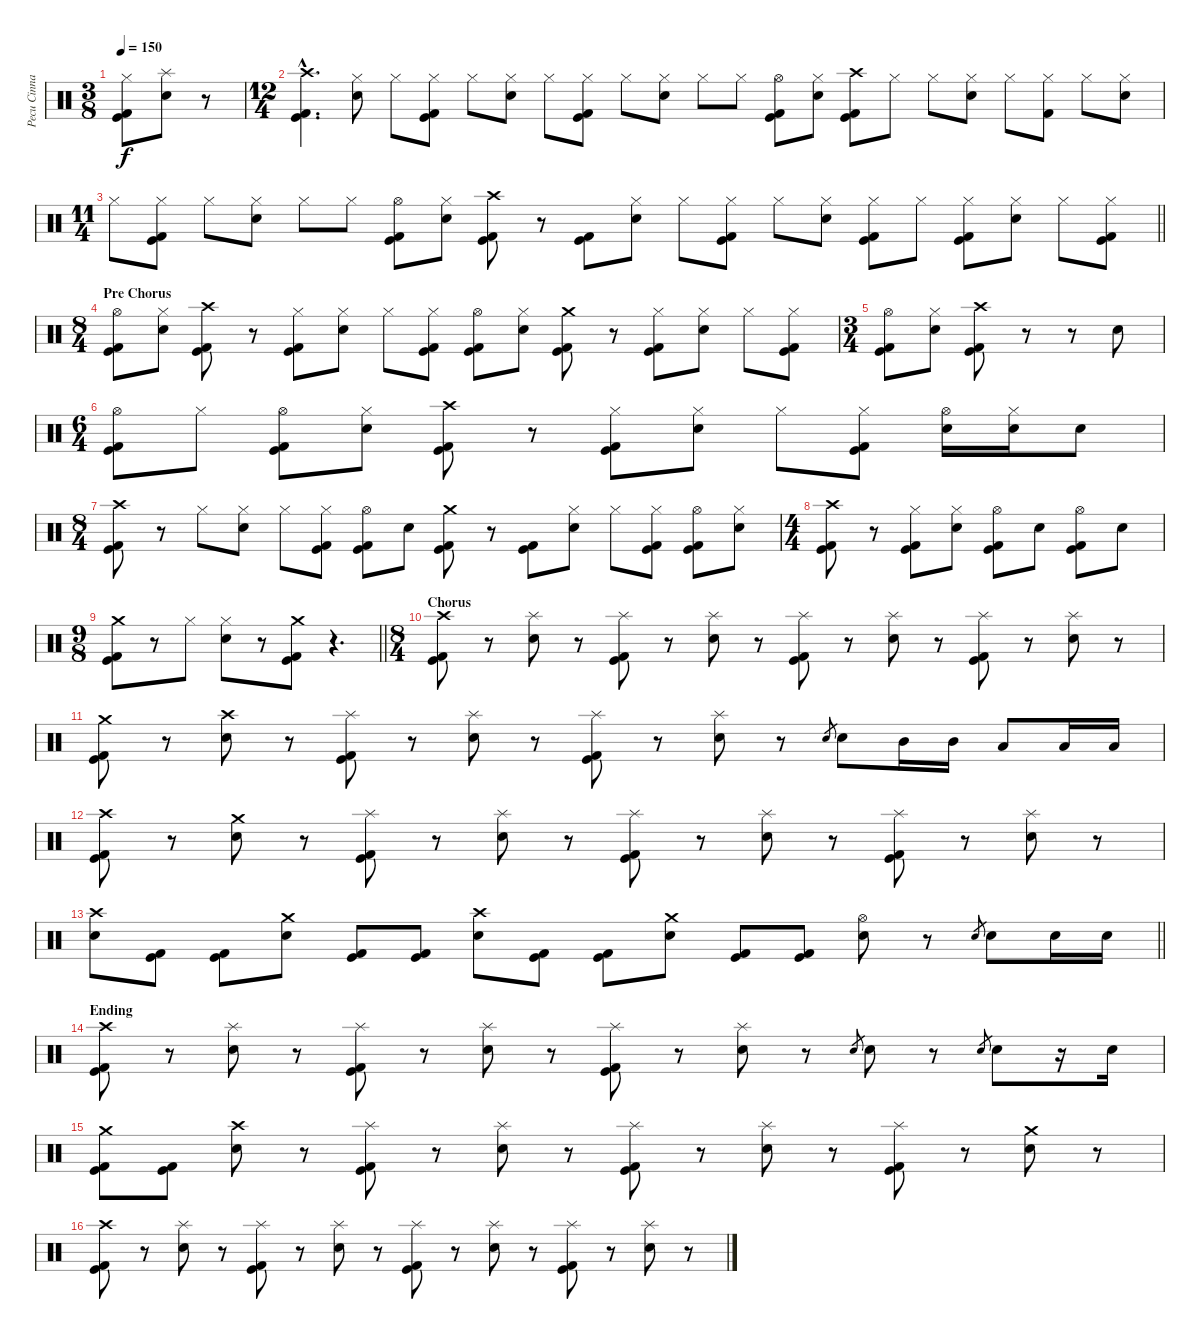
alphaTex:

\track ("Pecu Cinnari" "Pecu Cinna") {instrument percussion}
\staff {score}
\articulation defaults
\ts (3 8)
\tempo 150
\clef neutral
\ks c
("Hi-Hat (closed)" "Kick (hit)" "Kick (hit) 2").8{dy f} ("Splash (hit)" "Snare (hit) 2").8 r.8 |
\ts (12 4)
("Crash high (hit)"{hac} "Kick (hit)"{hac} "Kick (hit) 2"{hac}).4{d} ("Hi-Hat (closed)" "Snare (hit) 2").8 "Hi-Hat (closed)".8 ("Hi-Hat (closed)" "Kick (hit)" "Kick (hit) 2").8 "Hi-Hat (closed)".8 ("Hi-Hat (closed)" "Snare (hit) 2").8 "Hi-Hat (closed)".8 ("Hi-Hat (closed)" "Kick (hit)" "Kick (hit) 2").8 "Hi-Hat (closed)".8 ("Hi-Hat (closed)" "Snare (hit) 2").8 "Hi-Hat (closed)".8 "Hi-Hat (closed)".8 ("Hi-Hat (open)" "Kick (hit)" "Kick (hit) 2").8 ("Hi-Hat (closed)" "Snare (hit) 2").8 ("Crash high (hit)" "Kick (hit)" "Kick (hit) 2").8 "Hi-Hat (closed)".8 "Hi-Hat (closed)".8 ("Hi-Hat (closed)" "Snare (hit) 2").8 "Hi-Hat (closed)".8 ("Hi-Hat (closed)" "Kick (hit) 2").8 "Hi-Hat (closed)".8 ("Hi-Hat (closed)" "Snare (hit) 2").8 |
\ts (11 4)
\barLineRight lightlight "Hi-Hat (closed)".8
("Hi-Hat (closed)" "Kick (hit)" "Kick (hit) 2").8 "Hi-Hat (closed)".8 ("Hi-Hat (closed)" "Snare (hit) 2").8 "Hi-Hat (closed)".8 "Hi-Hat (closed)".8 ("Hi-Hat (open)" "Kick (hit)" "Kick (hit) 2").8 ("Hi-Hat (closed)" "Snare (hit) 2").8 ("Crash high (hit)" "Kick (hit)" "Kick (hit) 2").8 r.8 ("Kick (hit)" "Kick (hit) 2").8 ("Hi-Hat (closed)" "Snare (hit) 2").8 "Hi-Hat (closed)".8 ("Hi-Hat (closed)" "Kick (hit)" "Kick (hit) 2").8 "Hi-Hat (closed)".8 ("Hi-Hat (closed)" "Snare (hit) 2").8 ("Hi-Hat (closed)" "Kick (hit)" "Kick (hit) 2").8 "Hi-Hat (closed)".8 ("Hi-Hat (closed)" "Kick (hit)" "Kick (hit) 2").8 ("Hi-Hat (closed)" "Snare (hit) 2").8 "Hi-Hat (closed)".8 ("Hi-Hat (closed)" "Kick (hit)" "Kick (hit) 2").8 |
\ts (8 4)
\section ("" "Pre Chorus")
("Hi-Hat (open)" "Kick (hit)" "Kick (hit) 2").8 ("Hi-Hat (closed)" "Snare (hit) 2").8 ("Crash high (hit)" "Kick (hit)" "Kick (hit) 2").8 r.8 ("Hi-Hat (closed)" "Kick (hit)" "Kick (hit) 2").8 ("Hi-Hat (closed)" "Snare (hit) 2").8 "Hi-Hat (closed)".8 ("Hi-Hat (closed)" "Kick (hit)" "Kick (hit) 2").8 ("Hi-Hat (open)" "Kick (hit)" "Kick (hit) 2").8 ("Hi-Hat (closed)" "Snare (hit) 2").8 ("Crash medium (hit)" "Kick (hit)" "Kick (hit) 2").8 r.8 ("Hi-Hat (closed)" "Kick (hit)" "Kick (hit) 2").8 ("Hi-Hat (closed)" "Snare (hit) 2").8 "Hi-Hat (closed)".8 ("Hi-Hat (closed)" "Kick (hit)" "Kick (hit) 2").8 |
\ts (3 4)
("Hi-Hat (open)" "Kick (hit)" "Kick (hit) 2").8 ("Hi-Hat (closed)" "Snare (hit) 2").8 ("Crash high (hit)" "Kick (hit)" "Kick (hit) 2").8 r.8 r.8 "Snare (hit) 2".8 |
\ts (6 4)
("Hi-Hat (open)" "Kick (hit)" "Kick (hit) 2").8 "Hi-Hat (closed)".8 ("Hi-Hat (open)" "Kick (hit)" "Kick (hit) 2").8 ("Hi-Hat (closed)" "Snare (hit) 2").8 ("Crash high (hit)" "Kick (hit)" "Kick (hit) 2").8 r.8 ("Hi-Hat (closed)" "Kick (hit)" "Kick (hit) 2").8 ("Hi-Hat (closed)" "Snare (hit) 2").8 "Hi-Hat (closed)".8 ("Hi-Hat (closed)" "Kick (hit)" "Kick (hit) 2").8 ("Hi-Hat (open)" "Snare (hit) 2").16 ("Hi-Hat (closed)" "Snare (hit) 2").16 "Snare (hit) 2".8 |
\ts (8 4)
("Crash high (hit)" "Kick (hit)" "Kick (hit) 2").8 r.8 "Hi-Hat (closed)".8 ("Hi-Hat (closed)" "Snare (hit) 2").8 "Hi-Hat (closed)".8 ("Hi-Hat (closed)" "Kick (hit)" "Kick (hit) 2").8 ("Hi-Hat (open)" "Kick (hit)" "Kick (hit) 2").8 "Snare (hit) 2".8 ("Crash medium (hit)" "Kick (hit)" "Kick (hit) 2").8 r.8 ("Kick (hit)" "Kick (hit) 2").8 ("Hi-Hat (closed)" "Snare (hit) 2").8 "Hi-Hat (closed)".8 ("Hi-Hat (closed)" "Kick (hit)" "Kick (hit) 2").8 ("Hi-Hat (open)" "Kick (hit)" "Kick (hit) 2").8 ("Hi-Hat (closed)" "Snare (hit) 2").8 |
\ts (4 4)
("Crash high (hit)" "Kick (hit)" "Kick (hit) 2").8 r.8 ("Hi-Hat (closed)" "Kick (hit)" "Kick (hit) 2").8 ("Hi-Hat (closed)" "Snare (hit) 2").8 ("Hi-Hat (open)" "Kick (hit)" "Kick (hit) 2").8 "Snare (hit) 2".8 ("Hi-Hat (open)" "Kick (hit)" "Kick (hit) 2").8 "Snare (hit) 2".8 |
\ts (9 8)
\barLineRight lightlight
("Crash medium (hit)" "Kick (hit)" "Kick (hit) 2").8 r.8 "Hi-Hat (closed)".8 ("Hi-Hat (closed)" "Snare (hit) 2").8 r.8 ("Crash medium (hit)" "Kick (hit)" "Kick (hit) 2").8 r.4{d} |
\ts (8 4)
\section ("" "Chorus")
("Crash high (hit)" "Kick (hit)" "Kick (hit) 2").8 r.8 ("Splash (hit)" "Snare (hit) 2").8 r.8 ("Splash (hit)" "Kick (hit)" "Kick (hit) 2").8 r.8 ("Splash (hit)" "Snare (hit) 2").8 r.8 ("Splash (hit)" "Kick (hit)" "Kick (hit) 2").8 r.8 ("Splash (hit)" "Snare (hit) 2").8 r.8 ("Splash (hit)" "Kick (hit)" "Kick (hit) 2").8 r.8 ("Splash (hit)" "Snare (hit) 2").8 r.8 |
("Crash medium (hit)" "Kick (hit)" "Kick (hit) 2").8 r.8 ("Crash high (hit)" "Snare (hit) 2").8 r.8 ("Splash (hit)" "Kick (hit)" "Kick (hit) 2").8 r.8 ("Splash (hit)" "Snare (hit) 2").8 r.8 ("Splash (hit)" "Kick (hit)" "Kick (hit) 2").8 r.8 ("Splash (hit)" "Snare (hit) 2").8 r.8 "Snare (hit) 2".8{gr} "Snare (hit) 2".8 "Mid Tom (hit)".16 "Mid Tom (hit)".16 "Low Tom (hit)".8 "Low Tom (hit)".16 "Low Tom (hit)".16 |
("Crash high (hit)" "Kick (hit)" "Kick (hit) 2").8 r.8 ("Crash medium (hit)" "Snare (hit) 2").8 r.8 ("Splash (hit)" "Kick (hit)" "Kick (hit) 2").8 r.8 ("Splash (hit)" "Snare (hit) 2").8 r.8 ("Splash (hit)" "Kick (hit)" "Kick (hit) 2").8 r.8 ("Splash (hit)" "Snare (hit) 2").8 r.8 ("Splash (hit)" "Kick (hit)" "Kick (hit) 2").8 r.8 ("Splash (hit)" "Snare (hit) 2").8 r.8 |
\barLineRight lightlight
("Crash high (hit)" "Snare (hit) 2").8 ("Kick (hit)" "Kick (hit) 2").8 ("Kick (hit)" "Kick (hit) 2").8 ("Crash medium (hit)" "Snare (hit) 2").8 ("Kick (hit)" "Kick (hit) 2").8 ("Kick (hit)" "Kick (hit) 2").8 ("Crash high (hit)" "Snare (hit) 2").8 ("Kick (hit)" "Kick (hit) 2").8 ("Kick (hit)" "Kick (hit) 2").8 ("Crash medium (hit)" "Snare (hit) 2").8 ("Kick (hit)" "Kick (hit) 2").8 ("Kick (hit)" "Kick (hit) 2").8 ("Hi-Hat (open)" "Snare (hit) 2").8 r.8 "Snare (hit) 2".8{gr} "Snare (hit) 2".8 "Snare (hit) 2".16 "Snare (hit) 2".16 |
\section ("" "Ending")
("Crash high (hit)" "Kick (hit)" "Kick (hit) 2").8 r.8 ("Splash (hit)" "Snare (hit) 2").8 r.8 ("Splash (hit)" "Kick (hit)" "Kick (hit) 2").8 r.8 ("Splash (hit)" "Snare (hit) 2").8 r.8 ("Splash (hit)" "Kick (hit)" "Kick (hit) 2").8 r.8 ("Splash (hit)" "Snare (hit) 2").8 r.8 "Snare (hit) 2".8{gr} "Snare (hit) 2".8 r.8 "Snare (hit) 2".8{gr} "Snare (hit) 2".8 r.16 "Snare (hit) 2".16 |
("Crash medium (hit)" "Kick (hit)" "Kick (hit) 2").8 ("Kick (hit)" "Kick (hit) 2").8 ("Crash high (hit)" "Snare (hit) 2").8 r.8 ("Splash (hit)" "Kick (hit)" "Kick (hit) 2").8 r.8 ("Splash (hit)" "Snare (hit) 2").8 r.8 ("Splash (hit)" "Kick (hit)" "Kick (hit) 2").8 r.8 ("Splash (hit)" "Snare (hit) 2").8 r.8 ("Splash (hit)" "Kick (hit)" "Kick (hit) 2").8 r.8 ("Crash medium (hit)" "Snare (hit) 2").8 r.8 |
("Crash high (hit)" "Kick (hit)" "Kick (hit) 2").8 r.8 ("Splash (hit)" "Snare (hit) 2").8 r.8 ("Splash (hit)" "Kick (hit)" "Kick (hit) 2").8 r.8 ("Splash (hit)" "Snare (hit) 2").8 r.8 ("Splash (hit)" "Kick (hit)" "Kick (hit) 2").8 r.8 ("Splash (hit)" "Snare (hit) 2").8 r.8 ("Splash (hit)" "Kick (hit)" "Kick (hit) 2").8 r.8 ("Splash (hit)" "Snare (hit) 2").8 r.8
